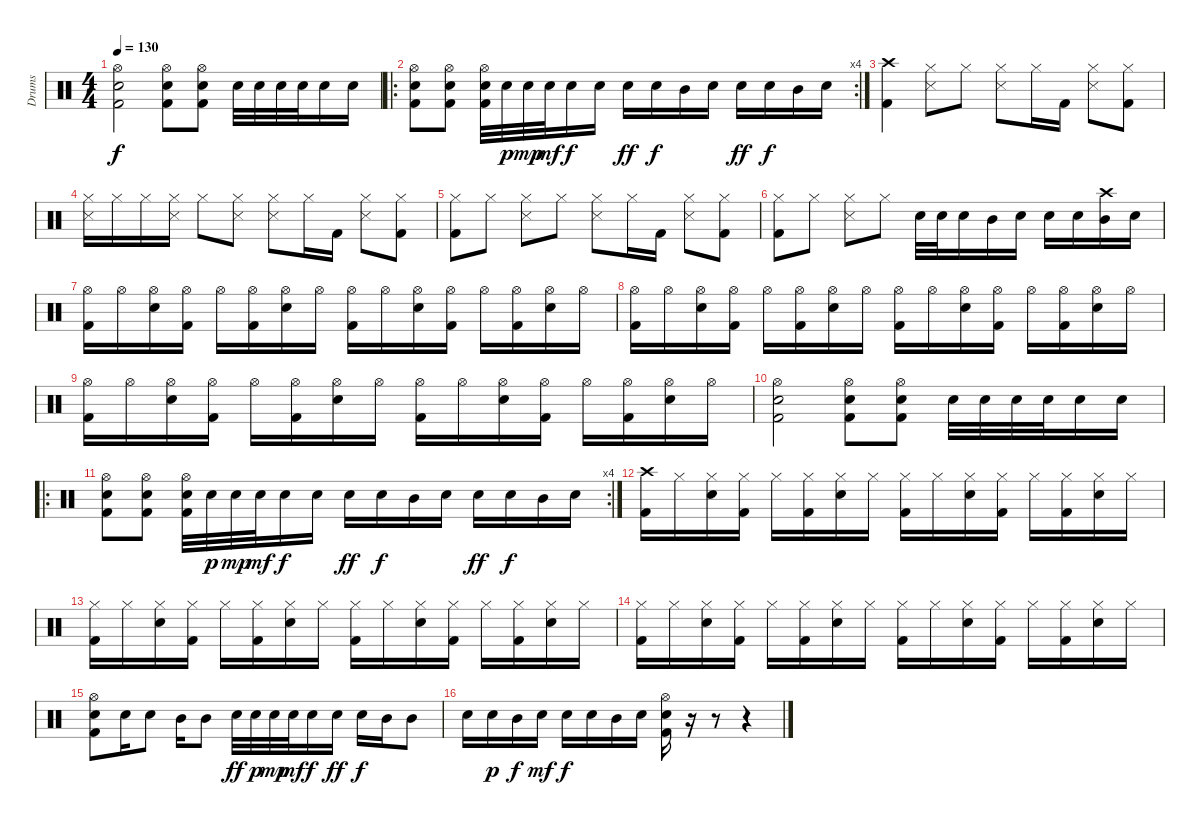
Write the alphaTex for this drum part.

\track ("Drums" "Drums") {instrument percussion}
\staff {score}
\articulation defaults
\ts (4 4)
\tempo 130
\clef neutral
\ks c
("Hi-Hat (open)" "Electric Snare (hit)" "Kick (hit) 2").2{dy f} ("Hi-Hat (open)" "Electric Snare (hit)" "Kick (hit) 2").8 ("Hi-Hat (open)" "Electric Snare (hit)" "Kick (hit) 2").8 "Electric Snare (hit)".32 "Electric Snare (hit)".32 "Electric Snare (hit)".32 "Electric Snare (hit)".32 "Electric Snare (hit)".16 "Electric Snare (hit)".16 |
\ro
\rc 4
("Hi-Hat (open)" "Electric Snare (hit)" "Kick (hit) 2").8 ("Hi-Hat (open)" "Electric Snare (hit)" "Kick (hit) 2").8 ("Hi-Hat (open)" "Electric Snare (hit)" "Kick (hit) 2").32 "Electric Snare (hit)".32{dy p} "Electric Snare (hit)".32{dy mp} "Electric Snare (hit)".32{dy mf} "Electric Snare (hit)".16{dy f} "Electric Snare (hit)".16 "Electric Snare (hit)".16{dy ff} "Electric Snare (hit)".16{dy f} "Mid Tom (hit)".16 "Electric Snare (hit)".16 "Electric Snare (hit)".16{dy ff} "Electric Snare (hit)".16{dy f} "Mid Tom (hit)".16 "Electric Snare (hit)".16 |
("Crash high (hit)" "Kick (hit) 2").4 ("Hi-Hat (closed)" "Snare (side stick) 3").8 "Hi-Hat (closed)".8 ("Hi-Hat (closed)" "Snare (side stick) 3").8 "Hi-Hat (closed)".16 "Kick (hit) 2".16 ("Hi-Hat (closed)" "Snare (side stick) 3").8 ("Hi-Hat (closed)" "Kick (hit) 2").8 |
("Hi-Hat (closed)" "Snare (side stick) 3").16 "Hi-Hat (closed)".16 "Hi-Hat (closed)".16 ("Hi-Hat (closed)" "Snare (side stick) 3").16 "Hi-Hat (closed)".8 ("Hi-Hat (closed)" "Snare (side stick) 3").8 ("Hi-Hat (closed)" "Snare (side stick) 3").8 "Hi-Hat (closed)".16 "Kick (hit) 2".16 ("Hi-Hat (closed)" "Snare (side stick) 3").8 ("Hi-Hat (closed)" "Kick (hit) 2").8 |
("Hi-Hat (closed)" "Kick (hit) 2").8 "Hi-Hat (closed)".8 ("Hi-Hat (closed)" "Snare (side stick) 3").8 "Hi-Hat (closed)".8 ("Hi-Hat (closed)" "Snare (side stick) 3").8 "Hi-Hat (closed)".16 "Kick (hit) 2".16 ("Hi-Hat (closed)" "Snare (side stick) 3").8 ("Hi-Hat (closed)" "Kick (hit) 2").8 |
("Hi-Hat (closed)" "Kick (hit) 2").8 "Hi-Hat (closed)".8 ("Hi-Hat (closed)" "Snare (side stick) 3").8 "Hi-Hat (closed)".8 "Electric Snare (hit)".32 "Electric Snare (hit)".32 "Electric Snare (hit)".16 "Mid Tom (hit)".16 "Electric Snare (hit)".16 "Electric Snare (hit)".16 "Electric Snare (hit)".16 ("Crash high (hit)" "Mid Tom (hit)").16 "Electric Snare (hit)".16 |
("Hi-Hat (open)" "Kick (hit) 2").16 "Hi-Hat (open)".16 ("Hi-Hat (open)" "Electric Snare (hit)").16 ("Hi-Hat (open)" "Kick (hit) 2").16 "Hi-Hat (open)".16 ("Hi-Hat (open)" "Kick (hit) 2").16 ("Hi-Hat (open)" "Electric Snare (hit)").16 "Hi-Hat (open)".16 ("Hi-Hat (open)" "Kick (hit) 2").16 "Hi-Hat (open)".16 ("Hi-Hat (open)" "Electric Snare (hit)").16 ("Hi-Hat (open)" "Kick (hit) 2").16 "Hi-Hat (open)".16 ("Hi-Hat (open)" "Kick (hit) 2").16 ("Hi-Hat (open)" "Electric Snare (hit)").16 "Hi-Hat (open)".16 |
("Hi-Hat (open)" "Kick (hit) 2").16 "Hi-Hat (open)".16 ("Hi-Hat (open)" "Electric Snare (hit)").16 ("Hi-Hat (open)" "Kick (hit) 2").16 "Hi-Hat (open)".16 ("Hi-Hat (open)" "Kick (hit) 2").16 ("Hi-Hat (open)" "Electric Snare (hit)").16 "Hi-Hat (open)".16 ("Hi-Hat (open)" "Kick (hit) 2").16 "Hi-Hat (open)".16 ("Hi-Hat (open)" "Electric Snare (hit)").16 ("Hi-Hat (open)" "Kick (hit) 2").16 "Hi-Hat (open)".16 ("Hi-Hat (open)" "Kick (hit) 2").16 ("Hi-Hat (open)" "Electric Snare (hit)").16 "Hi-Hat (open)".16 |
("Hi-Hat (open)" "Kick (hit) 2").16 "Hi-Hat (open)".16 ("Hi-Hat (open)" "Electric Snare (hit)").16 ("Hi-Hat (open)" "Kick (hit) 2").16 "Hi-Hat (open)".16 ("Hi-Hat (open)" "Kick (hit) 2").16 ("Hi-Hat (open)" "Electric Snare (hit)").16 "Hi-Hat (open)".16 ("Hi-Hat (open)" "Kick (hit) 2").16 "Hi-Hat (open)".16 ("Hi-Hat (open)" "Electric Snare (hit)").16 ("Hi-Hat (open)" "Kick (hit) 2").16 "Hi-Hat (open)".16 ("Hi-Hat (open)" "Kick (hit) 2").16 ("Hi-Hat (open)" "Electric Snare (hit)").16 "Hi-Hat (open)".16 |
("Hi-Hat (open)" "Electric Snare (hit)" "Kick (hit) 2").2 ("Hi-Hat (open)" "Electric Snare (hit)" "Kick (hit) 2").8 ("Hi-Hat (open)" "Electric Snare (hit)" "Kick (hit) 2").8 "Electric Snare (hit)".32 "Electric Snare (hit)".32 "Electric Snare (hit)".32 "Electric Snare (hit)".32 "Electric Snare (hit)".16 "Electric Snare (hit)".16 |
\ro
\rc 4
("Hi-Hat (open)" "Electric Snare (hit)" "Kick (hit) 2").8 ("Hi-Hat (open)" "Electric Snare (hit)" "Kick (hit) 2").8 ("Hi-Hat (open)" "Electric Snare (hit)" "Kick (hit) 2").32 "Electric Snare (hit)".32{dy p} "Electric Snare (hit)".32{dy mp} "Electric Snare (hit)".32{dy mf} "Electric Snare (hit)".16{dy f} "Electric Snare (hit)".16 "Electric Snare (hit)".16{dy ff} "Electric Snare (hit)".16{dy f} "Mid Tom (hit)".16 "Electric Snare (hit)".16 "Electric Snare (hit)".16{dy ff} "Electric Snare (hit)".16{dy f} "Mid Tom (hit)".16 "Electric Snare (hit)".16 |
("Crash high (hit)" "Kick (hit) 2").16 "Hi-Hat (closed)".16 ("Hi-Hat (closed)" "Electric Snare (hit)").16 ("Hi-Hat (closed)" "Kick (hit) 2").16 "Hi-Hat (closed)".16 ("Hi-Hat (closed)" "Kick (hit) 2").16 ("Hi-Hat (closed)" "Electric Snare (hit)").16 "Hi-Hat (closed)".16 ("Hi-Hat (closed)" "Kick (hit) 2").16 "Hi-Hat (closed)".16 ("Hi-Hat (closed)" "Electric Snare (hit)").16 ("Hi-Hat (closed)" "Kick (hit) 2").16 "Hi-Hat (closed)".16 ("Hi-Hat (closed)" "Kick (hit) 2").16 ("Hi-Hat (closed)" "Electric Snare (hit)").16 "Hi-Hat (closed)".16 |
("Hi-Hat (closed)" "Kick (hit) 2").16 "Hi-Hat (closed)".16 ("Hi-Hat (closed)" "Electric Snare (hit)").16 ("Hi-Hat (closed)" "Kick (hit) 2").16 "Hi-Hat (closed)".16 ("Hi-Hat (closed)" "Kick (hit) 2").16 ("Hi-Hat (closed)" "Electric Snare (hit)").16 "Hi-Hat (closed)".16 ("Hi-Hat (closed)" "Kick (hit) 2").16 "Hi-Hat (closed)".16 ("Hi-Hat (closed)" "Electric Snare (hit)").16 ("Hi-Hat (closed)" "Kick (hit) 2").16 "Hi-Hat (closed)".16 ("Hi-Hat (closed)" "Kick (hit) 2").16 ("Hi-Hat (closed)" "Electric Snare (hit)").16 "Hi-Hat (closed)".16 |
("Hi-Hat (closed)" "Kick (hit) 2").16 "Hi-Hat (closed)".16 ("Hi-Hat (closed)" "Electric Snare (hit)").16 ("Hi-Hat (closed)" "Kick (hit) 2").16 "Hi-Hat (closed)".16 ("Hi-Hat (closed)" "Kick (hit) 2").16 ("Hi-Hat (closed)" "Electric Snare (hit)").16 "Hi-Hat (closed)".16 ("Hi-Hat (closed)" "Kick (hit) 2").16 "Hi-Hat (closed)".16 ("Hi-Hat (closed)" "Electric Snare (hit)").16 ("Hi-Hat (closed)" "Kick (hit) 2").16 "Hi-Hat (closed)".16 ("Hi-Hat (closed)" "Kick (hit) 2").16 ("Hi-Hat (closed)" "Electric Snare (hit)").16 "Hi-Hat (closed)".16 |
("Hi-Hat (open)" "Electric Snare (hit)" "Kick (hit) 2").8 "Electric Snare (hit)".16 "Electric Snare (hit)".8 "Mid Tom (hit)".16 "Mid Tom (hit)".8 "Electric Snare (hit)".32{dy ff} "Electric Snare (hit)".32{dy p} "Electric Snare (hit)".32{dy mp} "Electric Snare (hit)".32{dy mf} "Electric Snare (hit)".16{dy f} "Electric Snare (hit)".16{dy ff} "Electric Snare (hit)".16{dy f} "Mid Tom (hit)".16 "Mid Tom (hit)".8 |
"Electric Snare (hit)".16 "Electric Snare (hit)".16{dy p} "Mid Tom (hit)".16{dy f} "Electric Snare (hit)".16{dy mf} "Electric Snare (hit)".16{dy f} "Electric Snare (hit)".16 "Mid Tom (hit)".16 "Electric Snare (hit)".16 ("Hi-Hat (open)" "Electric Snare (hit)" "Kick (hit) 2").16 r.16 r.8 r.4
